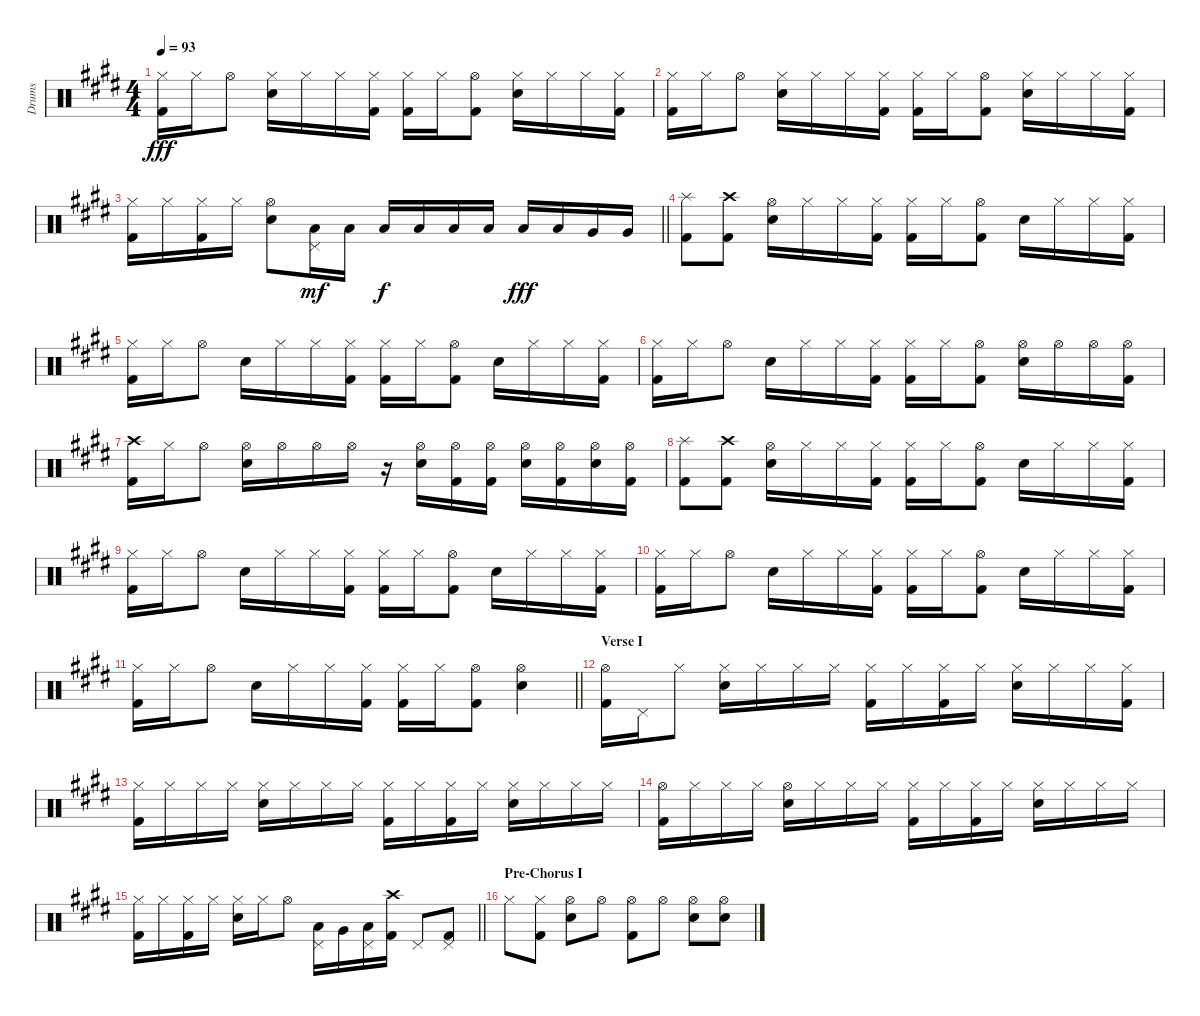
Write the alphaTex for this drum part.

\track ("Drums" "Drums") {instrument percussion}
\staff {score}
\articulation defaults
\ts (4 4)
\tempo 93
\clef neutral
\ks e
("Hi-Hat (closed)" "Kick (hit) 2").16{dy fff} "Hi-Hat (closed)".16 "Hi-Hat (open)".8 ("Hi-Hat (closed)" "Electric Snare (hit)").16 "Hi-Hat (closed)".16 "Hi-Hat (closed)".16 ("Hi-Hat (closed)" "Kick (hit) 2").16 ("Hi-Hat (closed)" "Kick (hit) 2").16 "Hi-Hat (closed)".16 ("Hi-Hat (open)" "Kick (hit) 2").8 ("Hi-Hat (closed)" "Electric Snare (hit)").16 "Hi-Hat (closed)".16 "Hi-Hat (closed)".16 ("Hi-Hat (closed)" "Kick (hit) 2").16 |
("Hi-Hat (closed)" "Kick (hit) 2").16 "Hi-Hat (closed)".16 "Hi-Hat (open)".8 ("Hi-Hat (closed)" "Electric Snare (hit)").16 "Hi-Hat (closed)".16 "Hi-Hat (closed)".16 ("Hi-Hat (closed)" "Kick (hit) 2").16 ("Hi-Hat (closed)" "Kick (hit) 2").16 "Hi-Hat (closed)".16 ("Hi-Hat (open)" "Kick (hit) 2").8 ("Hi-Hat (closed)" "Electric Snare (hit)").16 "Hi-Hat (closed)".16 "Hi-Hat (closed)".16 ("Hi-Hat (closed)" "Kick (hit) 2").16 |
\barLineRight lightlight
("Hi-Hat (closed)" "Kick (hit) 2").16 "Hi-Hat (closed)".16 ("Hi-Hat (closed)" "Kick (hit) 2").16 "Hi-Hat (closed)".16 ("Hi-Hat (open)" "Electric Snare (hit)").8 ("Pedal Hi-Hat (hit)" "Low Tom (hit)").16{dy mf} "Low Tom (hit)".16 "Low Tom (hit)".16{dy f} "Low Tom (hit)".16 "Low Tom (hit)".16 "Low Tom (hit)".16 "Low Tom (hit)".16{dy fff} "Low Tom (hit)".16 "Very Low Tom (hit)".16 "Very Low Tom (hit)".16 |
("Splash (hit)" "Kick (hit) 2").8 ("Crash high (hit)" "Kick (hit) 2").8 ("Hi-Hat (open)" "Snare (hit) 2").16 "Hi-Hat (closed)".16 "Hi-Hat (closed)".16 ("Hi-Hat (closed)" "Kick (hit) 2").16 ("Hi-Hat (closed)" "Kick (hit) 2").16 "Hi-Hat (closed)".16 ("Hi-Hat (open)" "Kick (hit) 2").8 "Snare (hit) 2".16 "Hi-Hat (closed)".16 "Hi-Hat (closed)".16 ("Hi-Hat (closed)" "Kick (hit) 2").16 |
("Hi-Hat (closed)" "Kick (hit) 2").16 "Hi-Hat (closed)".16 "Hi-Hat (open)".8 "Snare (hit) 2".16 "Hi-Hat (closed)".16 "Hi-Hat (closed)".16 ("Hi-Hat (closed)" "Kick (hit) 2").16 ("Hi-Hat (closed)" "Kick (hit) 2").16 "Hi-Hat (closed)".16 ("Hi-Hat (open)" "Kick (hit) 2").8 "Snare (hit) 2".16 "Hi-Hat (closed)".16 "Hi-Hat (closed)".16 ("Hi-Hat (closed)" "Kick (hit) 2").16 |
("Hi-Hat (closed)" "Kick (hit) 2").16 "Hi-Hat (closed)".16 "Hi-Hat (open)".8 "Snare (hit) 2".16 "Hi-Hat (closed)".16 "Hi-Hat (closed)".16 ("Hi-Hat (closed)" "Kick (hit) 2").16 ("Hi-Hat (closed)" "Kick (hit) 2").16 "Hi-Hat (closed)".16 ("Hi-Hat (open)" "Kick (hit) 2").8 ("Hi-Hat (open)" "Snare (hit) 2").16 "Hi-Hat (open)".16 "Hi-Hat (open)".16 ("Hi-Hat (open)" "Kick (hit) 2").16 |
("Crash high (hit)" "Kick (hit) 2").16 "Hi-Hat (closed)".16 "Hi-Hat (open)".8 ("Hi-Hat (open)" "Snare (hit) 2").16 "Hi-Hat (open)".16 "Hi-Hat (open)".16 "Hi-Hat (open)".16 r.16 ("Hi-Hat (open)" "Snare (hit) 2").16 ("Hi-Hat (open)" "Kick (hit) 2").16 ("Hi-Hat (open)" "Kick (hit) 2").16 ("Hi-Hat (open)" "Snare (hit) 2").16 ("Hi-Hat (open)" "Kick (hit) 2").16 ("Hi-Hat (open)" "Snare (hit) 2").16 ("Hi-Hat (open)" "Kick (hit) 2").16 |
("Splash (hit)" "Kick (hit) 2").8 ("Crash high (hit)" "Kick (hit) 2").8 ("Hi-Hat (open)" "Snare (hit) 2").16 "Hi-Hat (closed)".16 "Hi-Hat (closed)".16 ("Hi-Hat (closed)" "Kick (hit) 2").16 ("Hi-Hat (closed)" "Kick (hit) 2").16 "Hi-Hat (closed)".16 ("Hi-Hat (open)" "Kick (hit) 2").8 "Snare (hit) 2".16 "Hi-Hat (closed)".16 "Hi-Hat (closed)".16 ("Hi-Hat (closed)" "Kick (hit) 2").16 |
("Hi-Hat (closed)" "Kick (hit) 2").16 "Hi-Hat (closed)".16 "Hi-Hat (open)".8 "Snare (hit) 2".16 "Hi-Hat (closed)".16 "Hi-Hat (closed)".16 ("Hi-Hat (closed)" "Kick (hit) 2").16 ("Hi-Hat (closed)" "Kick (hit) 2").16 "Hi-Hat (closed)".16 ("Hi-Hat (open)" "Kick (hit) 2").8 "Snare (hit) 2".16 "Hi-Hat (closed)".16 "Hi-Hat (closed)".16 ("Hi-Hat (closed)" "Kick (hit) 2").16 |
("Hi-Hat (closed)" "Kick (hit) 2").16 "Hi-Hat (closed)".16 "Hi-Hat (open)".8 "Snare (hit) 2".16 "Hi-Hat (closed)".16 "Hi-Hat (closed)".16 ("Hi-Hat (closed)" "Kick (hit) 2").16 ("Hi-Hat (closed)" "Kick (hit) 2").16 "Hi-Hat (closed)".16 ("Hi-Hat (open)" "Kick (hit) 2").8 "Snare (hit) 2".16 "Hi-Hat (closed)".16 "Hi-Hat (closed)".16 ("Hi-Hat (closed)" "Kick (hit) 2").16 |
\barLineRight lightlight
("Hi-Hat (closed)" "Kick (hit) 2").16 "Hi-Hat (closed)".16 "Hi-Hat (open)".8 "Snare (hit) 2".16 "Hi-Hat (closed)".16 "Hi-Hat (closed)".16 ("Hi-Hat (closed)" "Kick (hit) 2").16 ("Hi-Hat (closed)" "Kick (hit) 2").16 "Hi-Hat (closed)".16 ("Hi-Hat (open)" "Kick (hit) 2").8 ("Hi-Hat (open)" "Snare (hit) 2").4 |
\section ("" "Verse I")
("Hi-Hat (open)" "Kick (hit) 2").16 "Pedal Hi-Hat (hit)".16 "Hi-Hat (closed)".8 ("Hi-Hat (closed)" "Snare (hit) 2").16 "Hi-Hat (closed)".16 "Hi-Hat (closed)".16 "Hi-Hat (closed)".16 ("Hi-Hat (closed)" "Kick (hit) 2").16 "Hi-Hat (closed)".16 ("Hi-Hat (closed)" "Kick (hit) 2").16 "Hi-Hat (closed)".16 ("Hi-Hat (closed)" "Snare (hit) 2").16 "Hi-Hat (closed)".16 "Hi-Hat (closed)".16 ("Hi-Hat (closed)" "Kick (hit) 2").16 |
("Hi-Hat (closed)" "Kick (hit) 2").16 "Hi-Hat (closed)".16 "Hi-Hat (closed)".16 "Hi-Hat (closed)".16 ("Hi-Hat (closed)" "Snare (hit) 2").16 "Hi-Hat (closed)".16 "Hi-Hat (closed)".16 "Hi-Hat (closed)".16 ("Hi-Hat (closed)" "Kick (hit) 2").16 "Hi-Hat (closed)".16 ("Hi-Hat (closed)" "Kick (hit) 2").16 "Hi-Hat (closed)".16 ("Hi-Hat (closed)" "Snare (hit) 2").16 "Hi-Hat (closed)".16 "Hi-Hat (closed)".16 "Hi-Hat (closed)".16 |
("Hi-Hat (open)" "Kick (hit) 2").16 "Hi-Hat (closed)".16 "Hi-Hat (closed)".16 "Hi-Hat (closed)".16 ("Hi-Hat (open)" "Snare (hit) 2").16 "Hi-Hat (closed)".16 "Hi-Hat (closed)".16 "Hi-Hat (closed)".16 ("Hi-Hat (closed)" "Kick (hit) 2").16 "Hi-Hat (closed)".16 ("Hi-Hat (closed)" "Kick (hit) 2").16 "Hi-Hat (closed)".16 ("Hi-Hat (closed)" "Snare (hit) 2").16 "Hi-Hat (closed)".16 "Hi-Hat (closed)".16 "Hi-Hat (closed)".16 |
\barLineRight lightlight
("Hi-Hat (closed)" "Kick (hit) 2").16 "Hi-Hat (closed)".16 ("Hi-Hat (closed)" "Kick (hit) 2").16 "Hi-Hat (closed)".16 ("Hi-Hat (closed)" "Snare (hit) 2").16 "Hi-Hat (closed)".16 "Hi-Hat (open)".8 ("Pedal Hi-Hat (hit)" "Low Tom (hit)").16 "Very Low Tom (hit)".16 ("Pedal Hi-Hat (hit)" "Low Floor Tom (hit)").16 ("Crash high (hit)" "Kick (hit) 2").16 "Pedal Hi-Hat (hit)".8 ("Pedal Hi-Hat (hit)" "Kick (hit) 2").8 |
\section ("" "Pre-Chorus I")
"Hi-Hat (closed)".8 ("Hi-Hat (closed)" "Kick (hit) 2").8 ("Hi-Hat (open)" "Snare (hit) 2").8 "Hi-Hat (open)".8 ("Hi-Hat (open)" "Kick (hit) 2").8 "Hi-Hat (open)".8 ("Hi-Hat (open)" "Snare (hit) 2").8 ("Hi-Hat (open)" "Snare (hit) 2").8
